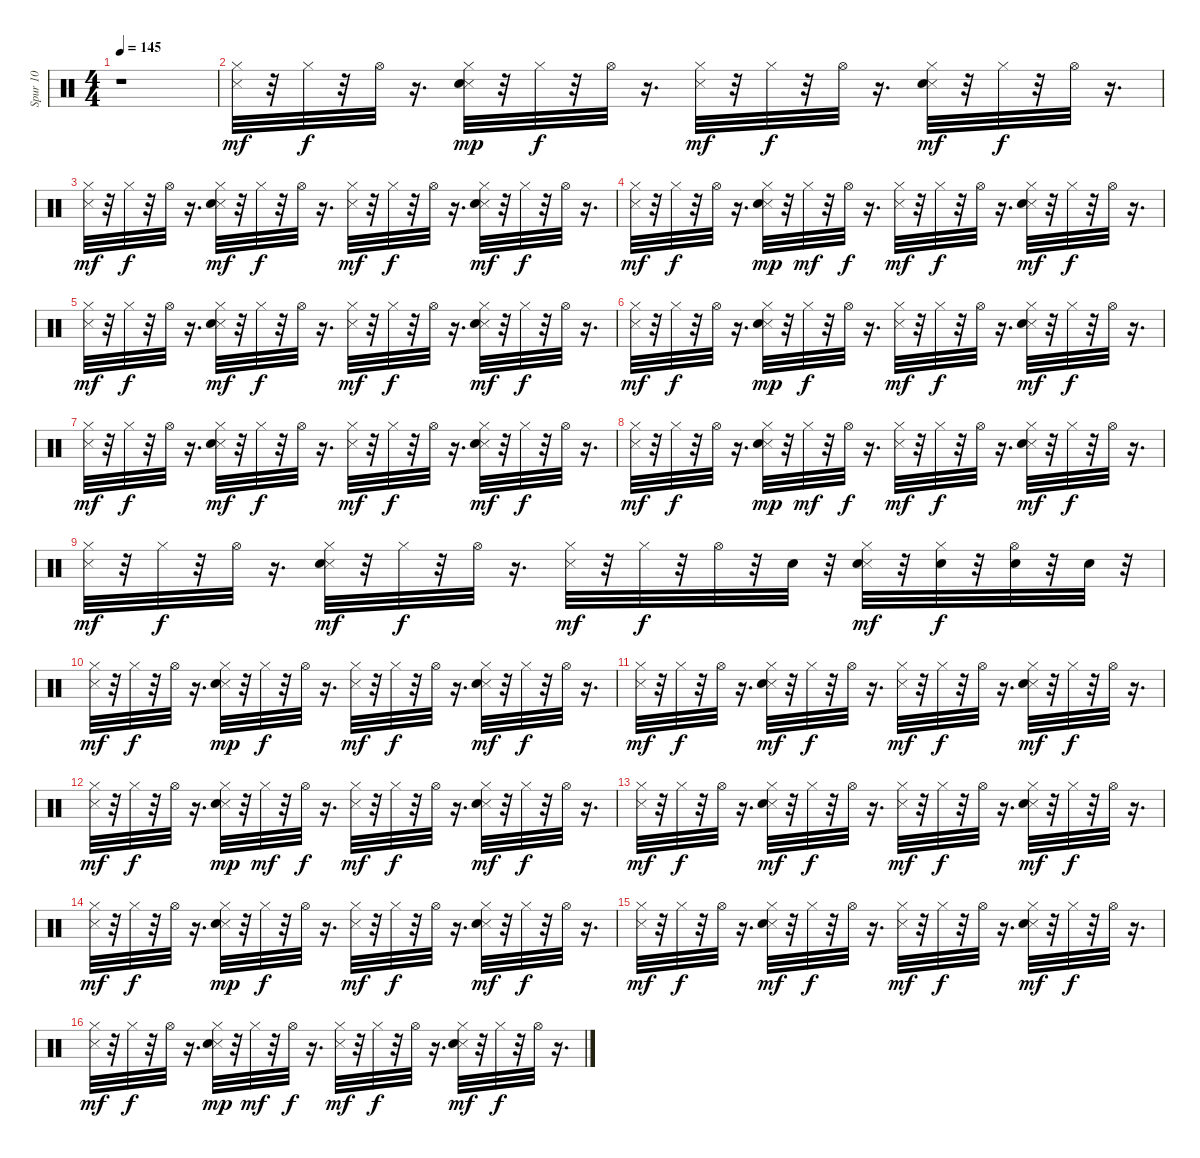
\track ("Spur 10" "Spur 10") {instrument percussion}
\staff {score}
\articulation defaults
\ts (4 4)
\tempo 145
\clef neutral
\ks c
r.1{dy mf} |
("Metronome (hit)" "Hi-Hat (closed)").32 r.32 "Hi-Hat (closed)".32{dy f} r.32 "Hi-Hat (open)".32 r.16{d} ("Metronome (hit)" "Snare (hit) 2" "Hi-Hat (closed)").32{dy mp} r.32 "Hi-Hat (closed)".32{dy f} r.32 "Hi-Hat (open)".32 r.16{d} ("Metronome (hit)" "Hi-Hat (closed)").32{dy mf} r.32 "Hi-Hat (closed)".32{dy f} r.32 "Hi-Hat (open)".32 r.16{d} ("Metronome (hit)" "Snare (hit) 2" "Hi-Hat (closed)").32{dy mf} r.32 "Hi-Hat (closed)".32{dy f} r.32 "Hi-Hat (open)".32 r.16{d} |
("Metronome (hit)" "Hi-Hat (closed)").32{dy mf} r.32 "Hi-Hat (closed)".32{dy f} r.32 "Hi-Hat (open)".32 r.16{d} ("Metronome (hit)" "Snare (hit) 2" "Hi-Hat (closed)").32{dy mf} r.32 "Hi-Hat (closed)".32{dy f} r.32 "Hi-Hat (open)".32 r.16{d} ("Metronome (hit)" "Hi-Hat (closed)").32{dy mf} r.32 "Hi-Hat (closed)".32{dy f} r.32 "Hi-Hat (open)".32 r.16{d} ("Metronome (hit)" "Snare (hit) 2" "Hi-Hat (closed)").32{dy mf} r.32 "Hi-Hat (closed)".32{dy f} r.32 "Hi-Hat (open)".32 r.16{d} |
("Metronome (hit)" "Hi-Hat (closed)").32{dy mf} r.32 "Hi-Hat (closed)".32{dy f} r.32 "Hi-Hat (open)".32 r.16{d} ("Metronome (hit)" "Snare (hit) 2" "Hi-Hat (closed)").32{dy mp} r.32 "Hi-Hat (closed)".32{dy mf} r.32 "Hi-Hat (open)".32{dy f} r.16{d} ("Metronome (hit)" "Hi-Hat (closed)").32{dy mf} r.32 "Hi-Hat (closed)".32{dy f} r.32 "Hi-Hat (open)".32 r.16{d} ("Metronome (hit)" "Snare (hit) 2" "Hi-Hat (closed)").32{dy mf} r.32 "Hi-Hat (closed)".32{dy f} r.32 "Hi-Hat (open)".32 r.16{d} |
("Metronome (hit)" "Hi-Hat (closed)").32{dy mf} r.32 "Hi-Hat (closed)".32{dy f} r.32 "Hi-Hat (open)".32 r.16{d} ("Metronome (hit)" "Snare (hit) 2" "Hi-Hat (closed)").32{dy mf} r.32 "Hi-Hat (closed)".32{dy f} r.32 "Hi-Hat (open)".32 r.16{d} ("Metronome (hit)" "Hi-Hat (closed)").32{dy mf} r.32 "Hi-Hat (closed)".32{dy f} r.32 "Hi-Hat (open)".32 r.16{d} ("Metronome (hit)" "Snare (hit) 2" "Hi-Hat (closed)").32{dy mf} r.32 "Hi-Hat (closed)".32{dy f} r.32 "Hi-Hat (open)".32 r.16{d} |
("Metronome (hit)" "Hi-Hat (closed)").32{dy mf} r.32 "Hi-Hat (closed)".32{dy f} r.32 "Hi-Hat (open)".32 r.16{d} ("Metronome (hit)" "Snare (hit) 2" "Hi-Hat (closed)").32{dy mp} r.32 "Hi-Hat (closed)".32{dy f} r.32 "Hi-Hat (open)".32 r.16{d} ("Metronome (hit)" "Hi-Hat (closed)").32{dy mf} r.32 "Hi-Hat (closed)".32{dy f} r.32 "Hi-Hat (open)".32 r.16{d} ("Metronome (hit)" "Snare (hit) 2" "Hi-Hat (closed)").32{dy mf} r.32 "Hi-Hat (closed)".32{dy f} r.32 "Hi-Hat (open)".32 r.16{d} |
("Metronome (hit)" "Hi-Hat (closed)").32{dy mf} r.32 "Hi-Hat (closed)".32{dy f} r.32 "Hi-Hat (open)".32 r.16{d} ("Metronome (hit)" "Snare (hit) 2" "Hi-Hat (closed)").32{dy mf} r.32 "Hi-Hat (closed)".32{dy f} r.32 "Hi-Hat (open)".32 r.16{d} ("Metronome (hit)" "Hi-Hat (closed)").32{dy mf} r.32 "Hi-Hat (closed)".32{dy f} r.32 "Hi-Hat (open)".32 r.16{d} ("Metronome (hit)" "Snare (hit) 2" "Hi-Hat (closed)").32{dy mf} r.32 "Hi-Hat (closed)".32{dy f} r.32 "Hi-Hat (open)".32 r.16{d} |
("Metronome (hit)" "Hi-Hat (closed)").32{dy mf} r.32 "Hi-Hat (closed)".32{dy f} r.32 "Hi-Hat (open)".32 r.16{d} ("Metronome (hit)" "Snare (hit) 2" "Hi-Hat (closed)").32{dy mp} r.32 "Hi-Hat (closed)".32{dy mf} r.32 "Hi-Hat (open)".32{dy f} r.16{d} ("Metronome (hit)" "Hi-Hat (closed)").32{dy mf} r.32 "Hi-Hat (closed)".32{dy f} r.32 "Hi-Hat (open)".32 r.16{d} ("Metronome (hit)" "Snare (hit) 2" "Hi-Hat (closed)").32{dy mf} r.32 "Hi-Hat (closed)".32{dy f} r.32 "Hi-Hat (open)".32 r.16{d} |
("Metronome (hit)" "Hi-Hat (closed)").32{dy mf} r.32 "Hi-Hat (closed)".32{dy f} r.32 "Hi-Hat (open)".32 r.16{d} ("Metronome (hit)" "Snare (hit) 2" "Hi-Hat (closed)").32{dy mf} r.32 "Hi-Hat (closed)".32{dy f} r.32 "Hi-Hat (open)".32 r.16{d} ("Metronome (hit)" "Hi-Hat (closed)").32{dy mf} r.32 "Hi-Hat (closed)".32{dy f} r.32 "Hi-Hat (open)".32 r.32 "Snare (hit) 2".32 r.32 ("Metronome (hit)" "Snare (hit) 2" "Hi-Hat (closed)").32{dy mf} r.32 ("Snare (hit) 2" "Hi-Hat (closed)").32{dy f} r.32 ("Snare (hit) 2" "Hi-Hat (open)").32 r.32 "Snare (hit) 2".32 r.32 |
("Metronome (hit)" "Hi-Hat (closed)").32{dy mf} r.32 "Hi-Hat (closed)".32{dy f} r.32 "Hi-Hat (open)".32 r.16{d} ("Metronome (hit)" "Snare (hit) 2" "Hi-Hat (closed)").32{dy mp} r.32 "Hi-Hat (closed)".32{dy f} r.32 "Hi-Hat (open)".32 r.16{d} ("Metronome (hit)" "Hi-Hat (closed)").32{dy mf} r.32 "Hi-Hat (closed)".32{dy f} r.32 "Hi-Hat (open)".32 r.16{d} ("Metronome (hit)" "Snare (hit) 2" "Hi-Hat (closed)").32{dy mf} r.32 "Hi-Hat (closed)".32{dy f} r.32 "Hi-Hat (open)".32 r.16{d} |
("Metronome (hit)" "Hi-Hat (closed)").32{dy mf} r.32 "Hi-Hat (closed)".32{dy f} r.32 "Hi-Hat (open)".32 r.16{d} ("Metronome (hit)" "Snare (hit) 2" "Hi-Hat (closed)").32{dy mf} r.32 "Hi-Hat (closed)".32{dy f} r.32 "Hi-Hat (open)".32 r.16{d} ("Metronome (hit)" "Hi-Hat (closed)").32{dy mf} r.32 "Hi-Hat (closed)".32{dy f} r.32 "Hi-Hat (open)".32 r.16{d} ("Metronome (hit)" "Snare (hit) 2" "Hi-Hat (closed)").32{dy mf} r.32 "Hi-Hat (closed)".32{dy f} r.32 "Hi-Hat (open)".32 r.16{d} |
("Metronome (hit)" "Hi-Hat (closed)").32{dy mf} r.32 "Hi-Hat (closed)".32{dy f} r.32 "Hi-Hat (open)".32 r.16{d} ("Metronome (hit)" "Snare (hit) 2" "Hi-Hat (closed)").32{dy mp} r.32 "Hi-Hat (closed)".32{dy mf} r.32 "Hi-Hat (open)".32{dy f} r.16{d} ("Metronome (hit)" "Hi-Hat (closed)").32{dy mf} r.32 "Hi-Hat (closed)".32{dy f} r.32 "Hi-Hat (open)".32 r.16{d} ("Metronome (hit)" "Snare (hit) 2" "Hi-Hat (closed)").32{dy mf} r.32 "Hi-Hat (closed)".32{dy f} r.32 "Hi-Hat (open)".32 r.16{d} |
("Metronome (hit)" "Hi-Hat (closed)").32{dy mf} r.32 "Hi-Hat (closed)".32{dy f} r.32 "Hi-Hat (open)".32 r.16{d} ("Metronome (hit)" "Snare (hit) 2" "Hi-Hat (closed)").32{dy mf} r.32 "Hi-Hat (closed)".32{dy f} r.32 "Hi-Hat (open)".32 r.16{d} ("Metronome (hit)" "Hi-Hat (closed)").32{dy mf} r.32 "Hi-Hat (closed)".32{dy f} r.32 "Hi-Hat (open)".32 r.16{d} ("Metronome (hit)" "Snare (hit) 2" "Hi-Hat (closed)").32{dy mf} r.32 "Hi-Hat (closed)".32{dy f} r.32 "Hi-Hat (open)".32 r.16{d} |
("Metronome (hit)" "Hi-Hat (closed)").32{dy mf} r.32 "Hi-Hat (closed)".32{dy f} r.32 "Hi-Hat (open)".32 r.16{d} ("Metronome (hit)" "Snare (hit) 2" "Hi-Hat (closed)").32{dy mp} r.32 "Hi-Hat (closed)".32{dy f} r.32 "Hi-Hat (open)".32 r.16{d} ("Metronome (hit)" "Hi-Hat (closed)").32{dy mf} r.32 "Hi-Hat (closed)".32{dy f} r.32 "Hi-Hat (open)".32 r.16{d} ("Metronome (hit)" "Snare (hit) 2" "Hi-Hat (closed)").32{dy mf} r.32 "Hi-Hat (closed)".32{dy f} r.32 "Hi-Hat (open)".32 r.16{d} |
("Metronome (hit)" "Hi-Hat (closed)").32{dy mf} r.32 "Hi-Hat (closed)".32{dy f} r.32 "Hi-Hat (open)".32 r.16{d} ("Metronome (hit)" "Snare (hit) 2" "Hi-Hat (closed)").32{dy mf} r.32 "Hi-Hat (closed)".32{dy f} r.32 "Hi-Hat (open)".32 r.16{d} ("Metronome (hit)" "Hi-Hat (closed)").32{dy mf} r.32 "Hi-Hat (closed)".32{dy f} r.32 "Hi-Hat (open)".32 r.16{d} ("Metronome (hit)" "Snare (hit) 2" "Hi-Hat (closed)").32{dy mf} r.32 "Hi-Hat (closed)".32{dy f} r.32 "Hi-Hat (open)".32 r.16{d} |
("Metronome (hit)" "Hi-Hat (closed)").32{dy mf} r.32 "Hi-Hat (closed)".32{dy f} r.32 "Hi-Hat (open)".32 r.16{d} ("Metronome (hit)" "Snare (hit) 2" "Hi-Hat (closed)").32{dy mp} r.32 "Hi-Hat (closed)".32{dy mf} r.32 "Hi-Hat (open)".32{dy f} r.16{d} ("Metronome (hit)" "Hi-Hat (closed)").32{dy mf} r.32 "Hi-Hat (closed)".32{dy f} r.32 "Hi-Hat (open)".32 r.16{d} ("Metronome (hit)" "Snare (hit) 2" "Hi-Hat (closed)").32{dy mf} r.32 "Hi-Hat (closed)".32{dy f} r.32 "Hi-Hat (open)".32 r.16{d}
